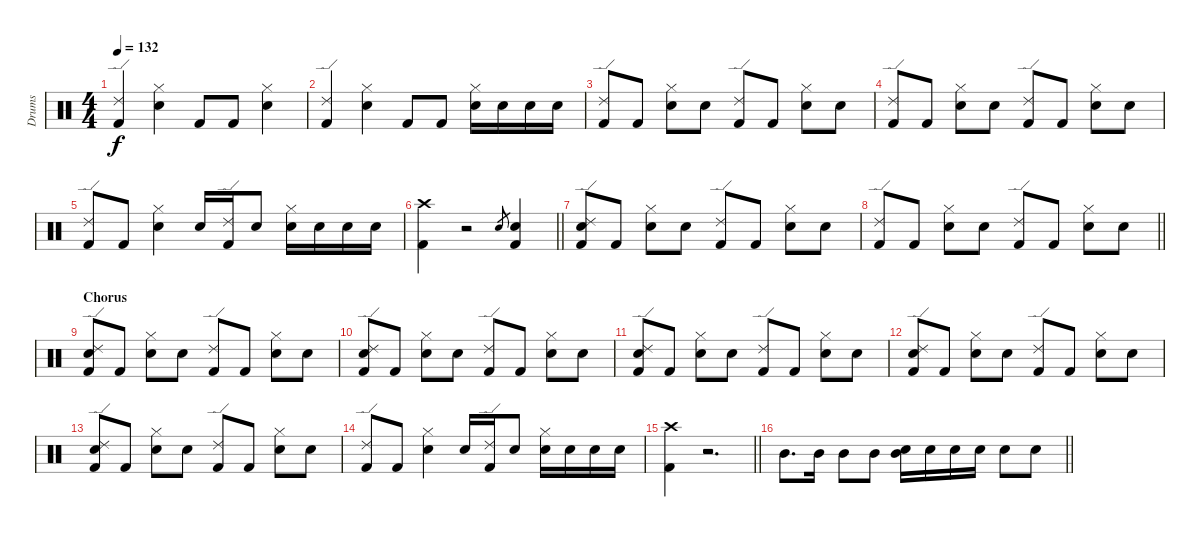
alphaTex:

\track ("Drums" "Drums") {instrument percussion}
\staff {score}
\articulation defaults
\ts (4 4)
\tempo 132
\clef neutral
\ks c
("Ride (edge) 2" "Kick (hit) 2").4{dy f} ("Hi-Hat (closed)" "Snare (hit) 2").4 "Kick (hit) 2".8 "Kick (hit) 2".8 ("Hi-Hat (closed)" "Snare (hit) 2").4 |
("Ride (edge) 2" "Kick (hit) 2").4 ("Hi-Hat (closed)" "Snare (hit) 2").4 "Kick (hit) 2".8 "Kick (hit) 2".8 ("Hi-Hat (closed)" "Snare (hit) 2").16 "Snare (hit) 2".16 "Snare (hit) 2".16 "Snare (hit) 2".16 |
("Ride (edge) 2" "Kick (hit) 2").8 "Kick (hit) 2".8 ("Hi-Hat (closed)" "Snare (hit) 2").8 "Snare (hit) 2".8 ("Ride (edge) 2" "Kick (hit) 2").8 "Kick (hit) 2".8 ("Hi-Hat (closed)" "Snare (hit) 2").8 "Snare (hit) 2".8 |
("Ride (edge) 2" "Kick (hit) 2").8 "Kick (hit) 2".8 ("Hi-Hat (closed)" "Snare (hit) 2").8 "Snare (hit) 2".8 ("Ride (edge) 2" "Kick (hit) 2").8 "Kick (hit) 2".8 ("Hi-Hat (closed)" "Snare (hit) 2").8 "Snare (hit) 2".8 |
("Ride (edge) 2" "Kick (hit) 2").8 "Kick (hit) 2".8 ("Hi-Hat (closed)" "Snare (hit) 2").4 "Snare (hit) 2".16 ("Ride (edge) 2" "Kick (hit) 2").16 "Snare (hit) 2".8 ("Hi-Hat (closed)" "Snare (hit) 2").16 "Snare (hit) 2".16 "Snare (hit) 2".16 "Snare (hit) 2".16 |
\barLineRight lightlight
("Crash high (hit)" "Kick (hit) 2").4{volume 9} r.2 "Snare (hit) 2".8{gr} ("Snare (hit) 2" "Kick (hit) 2").4 |
("Ride (edge) 2" "Snare (hit) 2" "Kick (hit) 2").8{volume 9} "Kick (hit) 2".8 ("Hi-Hat (closed)" "Snare (hit) 2").8 "Snare (hit) 2".8 ("Ride (edge) 2" "Kick (hit) 2").8 "Kick (hit) 2".8 ("Hi-Hat (closed)" "Snare (hit) 2").8 "Snare (hit) 2".8 |
\barLineRight lightlight
("Ride (edge) 2" "Kick (hit) 2").8 "Kick (hit) 2".8 ("Hi-Hat (closed)" "Snare (hit) 2").8 "Snare (hit) 2".8 ("Ride (edge) 2" "Kick (hit) 2").8 "Kick (hit) 2".8 ("Hi-Hat (closed)" "Snare (hit) 2").8 "Snare (hit) 2".8 |
\section ("" "Chorus")
("Ride (edge) 2" "Snare (hit) 2" "Kick (hit) 2").8{volume 9} "Kick (hit) 2".8 ("Hi-Hat (closed)" "Snare (hit) 2").8 "Snare (hit) 2".8 ("Ride (edge) 2" "Kick (hit) 2").8 "Kick (hit) 2".8 ("Hi-Hat (closed)" "Snare (hit) 2").8 "Snare (hit) 2".8 |
("Ride (edge) 2" "Snare (hit) 2" "Kick (hit) 2").8{volume 9} "Kick (hit) 2".8 ("Hi-Hat (closed)" "Snare (hit) 2").8 "Snare (hit) 2".8 ("Ride (edge) 2" "Kick (hit) 2").8 "Kick (hit) 2".8 ("Hi-Hat (closed)" "Snare (hit) 2").8 "Snare (hit) 2".8 |
("Ride (edge) 2" "Snare (hit) 2" "Kick (hit) 2").8{volume 9} "Kick (hit) 2".8 ("Hi-Hat (closed)" "Snare (hit) 2").8 "Snare (hit) 2".8 ("Ride (edge) 2" "Kick (hit) 2").8 "Kick (hit) 2".8 ("Hi-Hat (closed)" "Snare (hit) 2").8 "Snare (hit) 2".8 |
("Ride (edge) 2" "Snare (hit) 2" "Kick (hit) 2").8{volume 9} "Kick (hit) 2".8 ("Hi-Hat (closed)" "Snare (hit) 2").8 "Snare (hit) 2".8 ("Ride (edge) 2" "Kick (hit) 2").8 "Kick (hit) 2".8 ("Hi-Hat (closed)" "Snare (hit) 2").8 "Snare (hit) 2".8 |
("Ride (edge) 2" "Snare (hit) 2" "Kick (hit) 2").8{volume 9} "Kick (hit) 2".8 ("Hi-Hat (closed)" "Snare (hit) 2").8 "Snare (hit) 2".8 ("Ride (edge) 2" "Kick (hit) 2").8 "Kick (hit) 2".8 ("Hi-Hat (closed)" "Snare (hit) 2").8 "Snare (hit) 2".8 |
("Ride (edge) 2" "Kick (hit) 2").8 "Kick (hit) 2".8 ("Hi-Hat (closed)" "Snare (hit) 2").4 "Snare (hit) 2".16 ("Ride (edge) 2" "Kick (hit) 2").16 "Snare (hit) 2".8 ("Hi-Hat (closed)" "Snare (hit) 2").16 "Snare (hit) 2".16 "Snare (hit) 2".16 "Snare (hit) 2".16 |
\barLineRight lightlight
("Crash high (hit)" "Kick (hit) 2").4{volume 9} r.2{d} |
\barLineRight lightlight "Mid Tom (hit)".8{d} "Mid Tom (hit)".16 "Mid Tom (hit)".8 "Mid Tom (hit)".8
("Snare (hit) 2" "Mid Tom (hit)").16 "Snare (hit) 2".16 "Snare (hit) 2".16 "Snare (hit) 2".16 "Snare (hit) 2".8 "Snare (hit) 2".8
